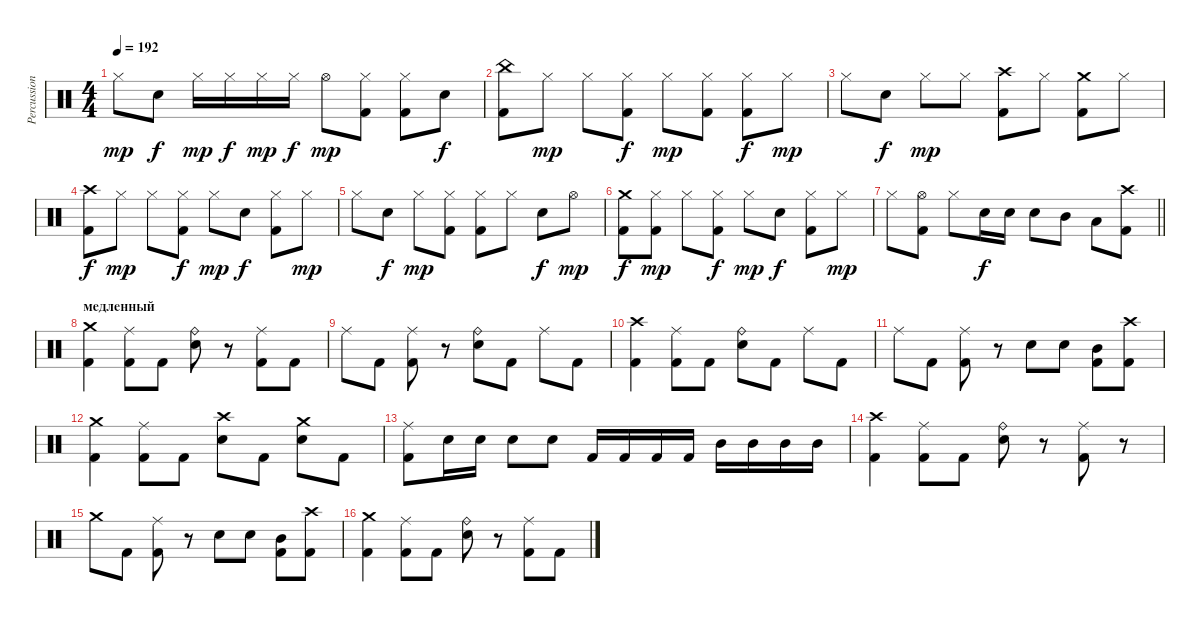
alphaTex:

\track ("Percussion" "Percussion") {instrument percussion}
\staff {score}
\articulation defaults
\ts (4 4)
\tempo 192
\clef neutral
\ks c "Hi-Hat (closed)".8{dy mp} "Electric Snare (hit)".8{dy f} "Hi-Hat (closed)".16{dy mp} "Hi-Hat (closed)".16{dy f} "Hi-Hat (closed)".16{dy mp} "Hi-Hat (closed)".16{dy f} "Hi-Hat (open)".8{dy mp}
("Hi-Hat (closed)" "Kick (hit) 2").8 ("Hi-Hat (closed)" "Kick (hit) 2").8 "Electric Snare (hit)".8{dy f} |
("China (hit)" "Kick (hit) 2").8 "Hi-Hat (closed)".8{dy mp} "Hi-Hat (closed)".8 ("Hi-Hat (closed)" "Kick (hit) 2").8{dy f} "Hi-Hat (closed)".8{dy mp} ("Hi-Hat (closed)" "Kick (hit) 2").8 ("Hi-Hat (closed)" "Kick (hit) 2").8{dy f} "Hi-Hat (closed)".8{dy mp} |
"Hi-Hat (closed)".8 "Electric Snare (hit)".8{dy f} "Hi-Hat (closed)".8{dy mp} "Hi-Hat (closed)".8 ("Crash high (hit)" "Kick (hit) 2").8 "Hi-Hat (closed)".8 ("Crash medium (hit)" "Kick (hit) 2").8 "Hi-Hat (closed)".8 |
("Crash high (hit)" "Kick (hit) 2").8{dy f} "Hi-Hat (closed)".8{dy mp} "Hi-Hat (closed)".8 ("Hi-Hat (closed)" "Kick (hit) 2").8{dy f} "Hi-Hat (closed)".8{dy mp} "Electric Snare (hit)".8{dy f} ("Hi-Hat (closed)" "Kick (hit) 2").8 "Hi-Hat (closed)".8{dy mp} |
"Hi-Hat (closed)".8 "Electric Snare (hit)".8{dy f} "Hi-Hat (closed)".8{dy mp} ("Hi-Hat (closed)" "Kick (hit) 2").8 ("Hi-Hat (closed)" "Kick (hit) 2").8 "Hi-Hat (closed)".8 "Electric Snare (hit)".8{dy f} "Hi-Hat (open)".8{dy mp} |
("Crash medium (hit)" "Kick (hit) 2").8{dy f} ("Hi-Hat (closed)" "Kick (hit) 2").8{dy mp} "Hi-Hat (closed)".8 ("Hi-Hat (closed)" "Kick (hit) 2").8{dy f} "Hi-Hat (closed)".8{dy mp} "Electric Snare (hit)".8{dy f} ("Hi-Hat (closed)" "Kick (hit) 2").8 "Hi-Hat (closed)".8{dy mp} |
\barLineRight lightlight "Hi-Hat (closed)".8
("Hi-Hat (open)" "Kick (hit) 2").8 "Hi-Hat (closed)".8 "Electric Snare (hit)".16{dy f} "Electric Snare (hit)".16 "Electric Snare (hit)".8 "Mid Tom (hit)".8 "Low Tom (hit)".8 ("Crash high (hit)" "Kick (hit) 2").8 |
\section ("" "медленный")
("Crash medium (hit)" "Kick (hit) 2").4 ("Ride (middle)" "Kick (hit) 2").8 "Kick (hit) 2".8 ("Ride (bell)" "Electric Snare (hit)").8 r.8 ("Ride (middle)" "Kick (hit) 2").8 "Kick (hit) 2".8 |
"Ride (middle)".8 "Kick (hit) 2".8 ("Ride (middle)" "Kick (hit) 2").8 r.8 ("Ride (bell)" "Electric Snare (hit)").8 "Kick (hit) 2".8 "Ride (middle)".8 "Kick (hit) 2".8 |
("Crash high (hit)" "Kick (hit) 2").4 ("Ride (middle)" "Kick (hit) 2").8 "Kick (hit) 2".8 ("Ride (bell)" "Electric Snare (hit)").8 "Kick (hit) 2".8 "Ride (middle)".8 "Kick (hit) 2".8 |
"Ride (middle)".8 "Kick (hit) 2".8 ("Ride (middle)" "Kick (hit) 2").8 r.8 "Electric Snare (hit)".8 "Electric Snare (hit)".8 ("Mid Tom (hit)" "Kick (hit) 2").8 ("Crash high (hit)" "Kick (hit) 2").8 |
("Crash medium (hit)" "Kick (hit) 2").4 ("Ride (middle)" "Kick (hit) 2").8 "Kick (hit) 2".8 ("Crash high (hit)" "Electric Snare (hit)").8 "Kick (hit) 2".8 ("Crash medium (hit)" "Electric Snare (hit)").8 "Kick (hit) 2".8 |
("Ride (middle)" "Kick (hit) 2").8 "Electric Snare (hit)".16 "Electric Snare (hit)".16 "Electric Snare (hit)".8 "Electric Snare (hit)".8 "Kick (hit) 2".16 "Kick (hit) 2".16 "Kick (hit) 2".16 "Kick (hit) 2".16 "Mid Tom (hit)".16 "Mid Tom (hit)".16 "Mid Tom (hit)".16 "Mid Tom (hit)".16 |
("Crash high (hit)" "Kick (hit) 2").4 ("Ride (middle)" "Kick (hit) 2").8 "Kick (hit) 2".8 ("Ride (bell)" "Electric Snare (hit)").8 r.8 ("Ride (middle)" "Kick (hit) 2").8 r.8 |
"Crash medium (hit)".8 "Kick (hit) 2".8 ("Ride (middle)" "Kick (hit) 2").8 r.8 "Electric Snare (hit)".8 "Electric Snare (hit)".8 ("Mid Tom (hit)" "Kick (hit) 2").8 ("Crash high (hit)" "Kick (hit) 2").8 |
("Crash medium (hit)" "Kick (hit) 2").4 ("Ride (middle)" "Kick (hit) 2").8 "Kick (hit) 2".8 ("Ride (bell)" "Electric Snare (hit)").8 r.8 ("Ride (middle)" "Kick (hit) 2").8 "Kick (hit) 2".8
